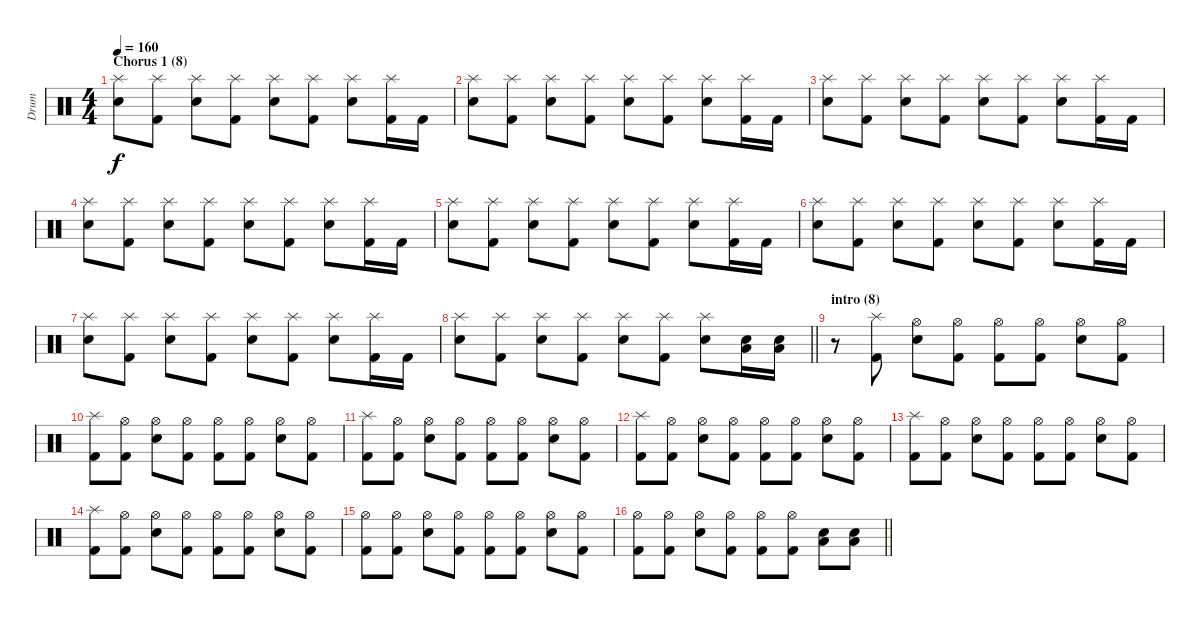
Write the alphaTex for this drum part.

\track ("Drum" "Drum") {instrument percussion}
\staff {score}
\articulation defaults
\ts (4 4)
\section ("" "Chorus 1 (8)")
\tempo 160
\clef neutral
\ks c
("Splash (hit)" "Snare (hit) 2").8{dy f} ("Splash (hit)" "Kick (hit) 2").8 ("Splash (hit)" "Snare (hit) 2").8 ("Splash (hit)" "Kick (hit) 2").8 ("Splash (hit)" "Snare (hit) 2").8 ("Splash (hit)" "Kick (hit) 2").8 ("Splash (hit)" "Snare (hit) 2").8 ("Splash (hit)" "Kick (hit) 2").16 "Kick (hit) 2".16 |
("Splash (hit)" "Snare (hit) 2").8 ("Splash (hit)" "Kick (hit) 2").8 ("Splash (hit)" "Snare (hit) 2").8 ("Splash (hit)" "Kick (hit) 2").8 ("Splash (hit)" "Snare (hit) 2").8 ("Splash (hit)" "Kick (hit) 2").8 ("Splash (hit)" "Snare (hit) 2").8 ("Splash (hit)" "Kick (hit) 2").16 "Kick (hit) 2".16 |
("Splash (hit)" "Snare (hit) 2").8 ("Splash (hit)" "Kick (hit) 2").8 ("Splash (hit)" "Snare (hit) 2").8 ("Splash (hit)" "Kick (hit) 2").8 ("Splash (hit)" "Snare (hit) 2").8 ("Splash (hit)" "Kick (hit) 2").8 ("Splash (hit)" "Snare (hit) 2").8 ("Splash (hit)" "Kick (hit) 2").16 "Kick (hit) 2".16 |
("Splash (hit)" "Snare (hit) 2").8 ("Splash (hit)" "Kick (hit) 2").8 ("Splash (hit)" "Snare (hit) 2").8 ("Splash (hit)" "Kick (hit) 2").8 ("Splash (hit)" "Snare (hit) 2").8 ("Splash (hit)" "Kick (hit) 2").8 ("Splash (hit)" "Snare (hit) 2").8 ("Splash (hit)" "Kick (hit) 2").16 "Kick (hit) 2".16 |
("Splash (hit)" "Snare (hit) 2").8 ("Splash (hit)" "Kick (hit) 2").8 ("Splash (hit)" "Snare (hit) 2").8 ("Splash (hit)" "Kick (hit) 2").8 ("Splash (hit)" "Snare (hit) 2").8 ("Splash (hit)" "Kick (hit) 2").8 ("Splash (hit)" "Snare (hit) 2").8 ("Splash (hit)" "Kick (hit) 2").16 "Kick (hit) 2".16 |
("Splash (hit)" "Snare (hit) 2").8 ("Splash (hit)" "Kick (hit) 2").8 ("Splash (hit)" "Snare (hit) 2").8 ("Splash (hit)" "Kick (hit) 2").8 ("Splash (hit)" "Snare (hit) 2").8 ("Splash (hit)" "Kick (hit) 2").8 ("Splash (hit)" "Snare (hit) 2").8 ("Splash (hit)" "Kick (hit) 2").16 "Kick (hit) 2".16 |
("Splash (hit)" "Snare (hit) 2").8 ("Splash (hit)" "Kick (hit) 2").8 ("Splash (hit)" "Snare (hit) 2").8 ("Splash (hit)" "Kick (hit) 2").8 ("Splash (hit)" "Snare (hit) 2").8 ("Splash (hit)" "Kick (hit) 2").8 ("Splash (hit)" "Snare (hit) 2").8 ("Splash (hit)" "Kick (hit) 2").16 "Kick (hit) 2".16 |
\barLineRight lightlight
("Splash (hit)" "Snare (hit) 2").8 ("Splash (hit)" "Kick (hit) 2").8 ("Splash (hit)" "Snare (hit) 2").8 ("Splash (hit)" "Kick (hit) 2").8 ("Splash (hit)" "Snare (hit) 2").8 ("Splash (hit)" "Kick (hit) 2").8 ("Splash (hit)" "Snare (hit) 2").8 ("Low Floor Tom (hit)" "Snare (hit) 2").16 ("Low Floor Tom (hit)" "Snare (hit) 2").16 |
\section ("" "intro (8)")
r.8 ("Splash (hit)" "Kick (hit) 2").8 ("Hi-Hat (open)" "Snare (hit) 2").8 ("Hi-Hat (open)" "Kick (hit) 2").8 ("Hi-Hat (open)" "Kick (hit) 2").8 ("Hi-Hat (open)" "Kick (hit) 2").8 ("Hi-Hat (open)" "Snare (hit) 2").8 ("Hi-Hat (open)" "Kick (hit) 2").8 |
("Splash (hit)" "Kick (hit) 2").8 ("Hi-Hat (open)" "Kick (hit) 2").8 ("Hi-Hat (open)" "Snare (hit) 2").8 ("Hi-Hat (open)" "Kick (hit) 2").8 ("Hi-Hat (open)" "Kick (hit) 2").8 ("Hi-Hat (open)" "Kick (hit) 2").8 ("Hi-Hat (open)" "Snare (hit) 2").8 ("Hi-Hat (open)" "Kick (hit) 2").8 |
("Splash (hit)" "Kick (hit) 2").8 ("Hi-Hat (open)" "Kick (hit) 2").8 ("Hi-Hat (open)" "Snare (hit) 2").8 ("Hi-Hat (open)" "Kick (hit) 2").8 ("Hi-Hat (open)" "Kick (hit) 2").8 ("Hi-Hat (open)" "Kick (hit) 2").8 ("Hi-Hat (open)" "Snare (hit) 2").8 ("Hi-Hat (open)" "Kick (hit) 2").8 |
("Splash (hit)" "Kick (hit) 2").8 ("Hi-Hat (open)" "Kick (hit) 2").8 ("Hi-Hat (open)" "Snare (hit) 2").8 ("Hi-Hat (open)" "Kick (hit) 2").8 ("Hi-Hat (open)" "Kick (hit) 2").8 ("Hi-Hat (open)" "Kick (hit) 2").8 ("Hi-Hat (open)" "Snare (hit) 2").8 ("Hi-Hat (open)" "Kick (hit) 2").8 |
("Splash (hit)" "Kick (hit) 2").8 ("Hi-Hat (open)" "Kick (hit) 2").8 ("Hi-Hat (open)" "Snare (hit) 2").8 ("Hi-Hat (open)" "Kick (hit) 2").8 ("Hi-Hat (open)" "Kick (hit) 2").8 ("Hi-Hat (open)" "Kick (hit) 2").8 ("Hi-Hat (open)" "Snare (hit) 2").8 ("Hi-Hat (open)" "Kick (hit) 2").8 |
("Splash (hit)" "Kick (hit) 2").8 ("Hi-Hat (open)" "Kick (hit) 2").8 ("Hi-Hat (open)" "Snare (hit) 2").8 ("Hi-Hat (open)" "Kick (hit) 2").8 ("Hi-Hat (open)" "Kick (hit) 2").8 ("Hi-Hat (open)" "Kick (hit) 2").8 ("Hi-Hat (open)" "Snare (hit) 2").8 ("Hi-Hat (open)" "Kick (hit) 2").8 |
("Hi-Hat (open)" "Kick (hit) 2").8 ("Hi-Hat (open)" "Kick (hit) 2").8 ("Hi-Hat (open)" "Snare (hit) 2").8 ("Hi-Hat (open)" "Kick (hit) 2").8 ("Hi-Hat (open)" "Kick (hit) 2").8 ("Hi-Hat (open)" "Kick (hit) 2").8 ("Hi-Hat (open)" "Snare (hit) 2").8 ("Hi-Hat (open)" "Kick (hit) 2").8 |
\barLineRight lightlight
("Hi-Hat (open)" "Kick (hit) 2").8 ("Hi-Hat (open)" "Kick (hit) 2").8 ("Hi-Hat (open)" "Snare (hit) 2").8 ("Hi-Hat (open)" "Kick (hit) 2").8 ("Hi-Hat (open)" "Kick (hit) 2").8 ("Hi-Hat (open)" "Kick (hit) 2").8 ("Low Floor Tom (hit)" "Snare (hit) 2").8 ("Low Floor Tom (hit)" "Snare (hit) 2").8
